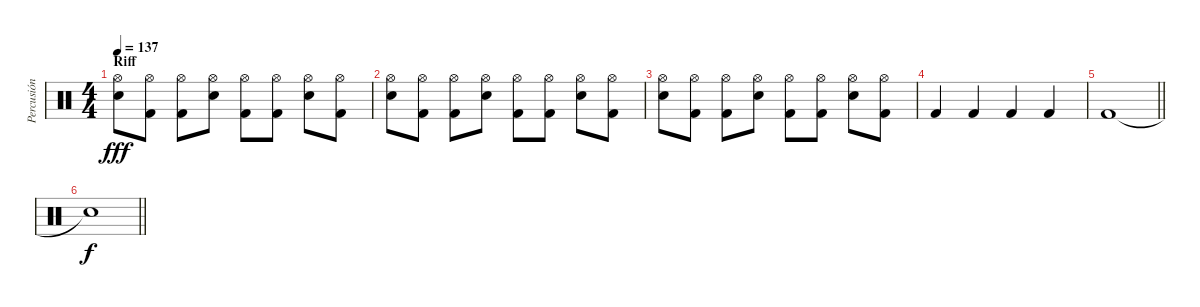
\track ("Percusión" "Percusión") {instrument percussion}
\staff {score}
\articulation defaults
\ts (4 4)
\section ("" "Riff")
\tempo 137
\clef neutral
\ks c
("Hi-Hat (open)" "Electric Snare (hit)").8{dy fff} ("Hi-Hat (open)" "Kick (hit) 2").8 ("Hi-Hat (open)" "Kick (hit) 2").8 ("Hi-Hat (open)" "Electric Snare (hit)").8 ("Hi-Hat (open)" "Kick (hit) 2").8 ("Hi-Hat (open)" "Kick (hit) 2").8 ("Hi-Hat (open)" "Electric Snare (hit)").8 ("Hi-Hat (open)" "Kick (hit) 2").8 |
("Hi-Hat (open)" "Electric Snare (hit)").8 ("Hi-Hat (open)" "Kick (hit) 2").8 ("Hi-Hat (open)" "Kick (hit) 2").8 ("Hi-Hat (open)" "Electric Snare (hit)").8 ("Hi-Hat (open)" "Kick (hit) 2").8 ("Hi-Hat (open)" "Kick (hit) 2").8 ("Hi-Hat (open)" "Electric Snare (hit)").8 ("Hi-Hat (open)" "Kick (hit) 2").8 |
("Hi-Hat (open)" "Electric Snare (hit)").8 ("Hi-Hat (open)" "Kick (hit) 2").8 ("Hi-Hat (open)" "Kick (hit) 2").8 ("Hi-Hat (open)" "Electric Snare (hit)").8 ("Hi-Hat (open)" "Kick (hit) 2").8 ("Hi-Hat (open)" "Kick (hit) 2").8 ("Hi-Hat (open)" "Electric Snare (hit)").8 ("Hi-Hat (open)" "Kick (hit) 2").8 |
"Kick (hit) 2".4 "Kick (hit) 2".4 "Kick (hit) 2".4 "Kick (hit) 2".4 |
\barLineRight lightlight "Kick (hit) 2".1
|
\barLineRight lightlight "Snare (hit)"{t}.1{dy f}
